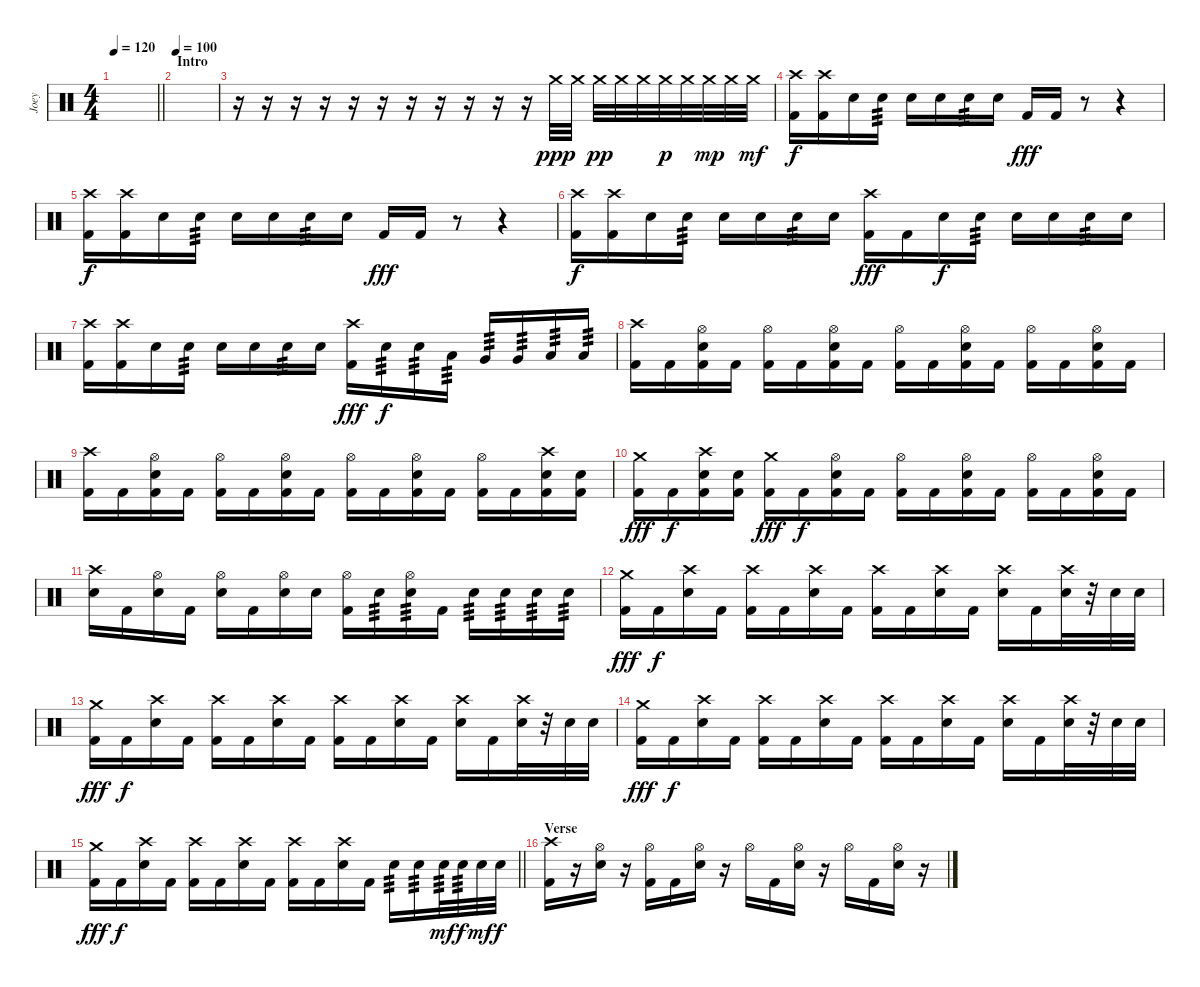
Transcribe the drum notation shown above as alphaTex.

\track ("Joey" "Joey") {instrument percussion}
\staff {score}
\articulation defaults
\ts (4 4)
\tempo 120
\clef neutral
\barLineRight lightlight
\ks c
|
\section ("" "Intro")
\tempo 100
|
r.16 r.16 r.16 r.16 r.16 r.16 r.16 r.16 r.16 r.16 r.16 "Crash medium (hit)".32{dy ppp} "Crash medium (hit)".32 "Crash medium (hit)".32{dy pp} "Crash medium (hit)".32 "Crash medium (hit)".32 "Crash medium (hit)".32{dy p} "Crash medium (hit)".32 "Crash medium (hit)".32{dy mp} "Crash medium (hit)".32 "Crash medium (hit)".32{dy mf} |
("Crash high (hit)" "Kick (hit) 2").16{dy f} ("Crash high (hit)" "Kick (hit) 2").16 "Electric Snare (hit)".16 "Electric Snare (hit)".16{tp 3} "Electric Snare (hit)".16 "Electric Snare (hit)".16 "Electric Snare (hit)".16{tp 3} "Electric Snare (hit)".16 "Kick (hit) 2".16{dy fff} "Kick (hit) 2".16 r.8 r.4 |
("Crash high (hit)" "Kick (hit) 2").16{dy f} ("Crash high (hit)" "Kick (hit) 2").16 "Electric Snare (hit)".16 "Electric Snare (hit)".16{tp 3} "Electric Snare (hit)".16 "Electric Snare (hit)".16 "Electric Snare (hit)".16{tp 3} "Electric Snare (hit)".16 "Kick (hit) 2".16{dy fff} "Kick (hit) 2".16 r.8 r.4 |
("Crash high (hit)" "Kick (hit) 2").16{dy f} ("Crash high (hit)" "Kick (hit) 2").16 "Electric Snare (hit)".16 "Electric Snare (hit)".16{tp 3} "Electric Snare (hit)".16 "Electric Snare (hit)".16 "Electric Snare (hit)".16{tp 3} "Electric Snare (hit)".16 ("Crash high (hit)" "Kick (hit) 2").16{dy fff} "Kick (hit) 2".16 "Electric Snare (hit)".16{dy f} "Electric Snare (hit)".16{tp 3} "Electric Snare (hit)".16 "Electric Snare (hit)".16 "Electric Snare (hit)".16{tp 3} "Electric Snare (hit)".16 |
("Crash high (hit)" "Kick (hit) 2").16 ("Crash high (hit)" "Kick (hit) 2").16 "Electric Snare (hit)".16 "Electric Snare (hit)".16{tp 3} "Electric Snare (hit)".16 "Electric Snare (hit)".16 "Electric Snare (hit)".16{tp 3} "Electric Snare (hit)".16 ("Crash high (hit)" "Kick (hit) 2").16{dy fff} "Electric Snare (hit)".16{tp 3 dy f} "Electric Snare (hit)".16{tp 3} "Low Tom (hit)".16{tp 3} "Very Low Tom (hit)".16{tp 3} "Very Low Tom (hit)".16{tp 3} "Low Floor Tom (hit)".16{tp 3} "Low Floor Tom (hit)".16{tp 3} |
("Crash high (hit)" "Kick (hit) 2").16 "Kick (hit) 2".16 ("Hi-Hat (open)" "Electric Snare (hit)" "Kick (hit) 2").16 "Kick (hit) 2".16 ("Hi-Hat (open)" "Kick (hit) 2").16 "Kick (hit) 2".16 ("Hi-Hat (open)" "Electric Snare (hit)" "Kick (hit) 2").16 "Kick (hit) 2".16 ("Hi-Hat (open)" "Kick (hit) 2").16 "Kick (hit) 2".16 ("Hi-Hat (open)" "Electric Snare (hit)" "Kick (hit) 2").16 "Kick (hit) 2".16 ("Hi-Hat (open)" "Kick (hit) 2").16 "Kick (hit) 2".16 ("Hi-Hat (open)" "Electric Snare (hit)" "Kick (hit) 2").16 "Kick (hit) 2".16 |
("Crash high (hit)" "Kick (hit) 2").16 "Kick (hit) 2".16 ("Hi-Hat (open)" "Electric Snare (hit)" "Kick (hit) 2").16 "Kick (hit) 2".16 ("Hi-Hat (open)" "Kick (hit) 2").16 "Kick (hit) 2".16 ("Hi-Hat (open)" "Electric Snare (hit)" "Kick (hit) 2").16 "Kick (hit) 2".16 ("Hi-Hat (open)" "Kick (hit) 2").16 "Kick (hit) 2".16 ("Hi-Hat (open)" "Electric Snare (hit)" "Kick (hit) 2").16 "Kick (hit) 2".16 ("Hi-Hat (open)" "Kick (hit) 2").16 "Kick (hit) 2".16 ("Crash high (hit)" "Electric Snare (hit)" "Kick (hit) 2").16 ("Electric Snare (hit)" "Kick (hit) 2").16 |
("Crash medium (hit)" "Kick (hit) 2").16{dy fff} "Kick (hit) 2".16{dy f} ("Crash high (hit)" "Electric Snare (hit)" "Kick (hit) 2").16 ("Electric Snare (hit)" "Kick (hit) 2").16 ("Crash medium (hit)" "Kick (hit) 2").16{dy fff} "Kick (hit) 2".16{dy f} ("Hi-Hat (open)" "Electric Snare (hit)" "Kick (hit) 2").16 "Kick (hit) 2".16 ("Hi-Hat (open)" "Kick (hit) 2").16 "Kick (hit) 2".16 ("Hi-Hat (open)" "Electric Snare (hit)" "Kick (hit) 2").16 "Kick (hit) 2".16 ("Hi-Hat (open)" "Kick (hit) 2").16 "Kick (hit) 2".16 ("Hi-Hat (open)" "Electric Snare (hit)" "Kick (hit) 2").16 "Kick (hit) 2".16 |
("Crash high (hit)" "Electric Snare (hit)").16 "Kick (hit) 2".16 ("Hi-Hat (open)" "Electric Snare (hit)").16 "Kick (hit) 2".16 ("Hi-Hat (open)" "Electric Snare (hit)").16 "Kick (hit) 2".16 ("Hi-Hat (open)" "Electric Snare (hit)").16 "Electric Snare (hit)".16 ("Hi-Hat (open)" "Kick (hit) 2").16 "Electric Snare (hit)".16{tp 3} ("Hi-Hat (open)" "Electric Snare (hit)").16{tp 3} "Kick (hit) 2".16 "Electric Snare (hit)".16{tp 3} "Electric Snare (hit)".16{tp 3} "Electric Snare (hit)".16{tp 3} "Electric Snare (hit)".16{tp 3} |
("Crash medium (hit)" "Kick (hit) 2").16{dy fff} "Kick (hit) 2".16{dy f} ("Crash high (hit)" "Electric Snare (hit)").16 "Kick (hit) 2".16 ("Crash high (hit)" "Kick (hit) 2").16 "Kick (hit) 2".16 ("Crash high (hit)" "Electric Snare (hit)").16 "Kick (hit) 2".16 ("Crash high (hit)" "Kick (hit) 2").16 "Kick (hit) 2".16 ("Crash high (hit)" "Electric Snare (hit)").16 "Kick (hit) 2".16 ("Crash high (hit)" "Electric Snare (hit)").16 "Kick (hit) 2".16 ("Crash high (hit)" "Electric Snare (hit)").32 r.32 "Electric Snare (hit)".32 "Electric Snare (hit)".32 |
("Crash medium (hit)" "Kick (hit) 2").16{dy fff} "Kick (hit) 2".16{dy f} ("Crash high (hit)" "Electric Snare (hit)").16 "Kick (hit) 2".16 ("Crash high (hit)" "Kick (hit) 2").16 "Kick (hit) 2".16 ("Crash high (hit)" "Electric Snare (hit)").16 "Kick (hit) 2".16 ("Crash high (hit)" "Kick (hit) 2").16 "Kick (hit) 2".16 ("Crash high (hit)" "Electric Snare (hit)").16 "Kick (hit) 2".16 ("Crash high (hit)" "Electric Snare (hit)").16 "Kick (hit) 2".16 ("Crash high (hit)" "Electric Snare (hit)").32 r.32 "Electric Snare (hit)".32 "Electric Snare (hit)".32 |
("Crash medium (hit)" "Kick (hit) 2").16{dy fff} "Kick (hit) 2".16{dy f} ("Crash high (hit)" "Electric Snare (hit)").16 "Kick (hit) 2".16 ("Crash high (hit)" "Kick (hit) 2").16 "Kick (hit) 2".16 ("Crash high (hit)" "Electric Snare (hit)").16 "Kick (hit) 2".16 ("Crash high (hit)" "Kick (hit) 2").16 "Kick (hit) 2".16 ("Crash high (hit)" "Electric Snare (hit)").16 "Kick (hit) 2".16 ("Crash high (hit)" "Electric Snare (hit)").16 "Kick (hit) 2".16 ("Crash high (hit)" "Electric Snare (hit)").32 r.32 "Electric Snare (hit)".32 "Electric Snare (hit)".32 |
\barLineRight lightlight
("Crash medium (hit)" "Kick (hit) 2").16{dy fff} "Kick (hit) 2".16{dy f} ("Crash high (hit)" "Electric Snare (hit)").16 "Kick (hit) 2".16 ("Crash high (hit)" "Kick (hit) 2").16 "Kick (hit) 2".16 ("Crash high (hit)" "Electric Snare (hit)").16 "Kick (hit) 2".16 ("Crash high (hit)" "Kick (hit) 2").16 "Kick (hit) 2".16 ("Crash high (hit)" "Electric Snare (hit)").16 "Kick (hit) 2".16 "Electric Snare (hit)".16{tp 3} "Electric Snare (hit)".16{tp 3} "Electric Snare (hit)".32{tp 3 dy mf} "Electric Snare (hit)".32{tp 3 dy f} "Electric Snare (hit)".32{dy mf} "Electric Snare (hit)".32{dy f} |
\section ("" "Verse")
("Crash high (hit)" "Kick (hit) 2").16 r.16 ("Hi-Hat (open)" "Electric Snare (hit)").16 r.16 ("Hi-Hat (open)" "Kick (hit) 2").16 "Kick (hit) 2".16 ("Hi-Hat (open)" "Electric Snare (hit)").16 r.16 "Hi-Hat (open)".16 "Kick (hit) 2".16 ("Hi-Hat (open)" "Electric Snare (hit)").16 r.16 "Hi-Hat (open)".16 "Kick (hit) 2".16 ("Hi-Hat (open)" "Electric Snare (hit)").16 r.16
